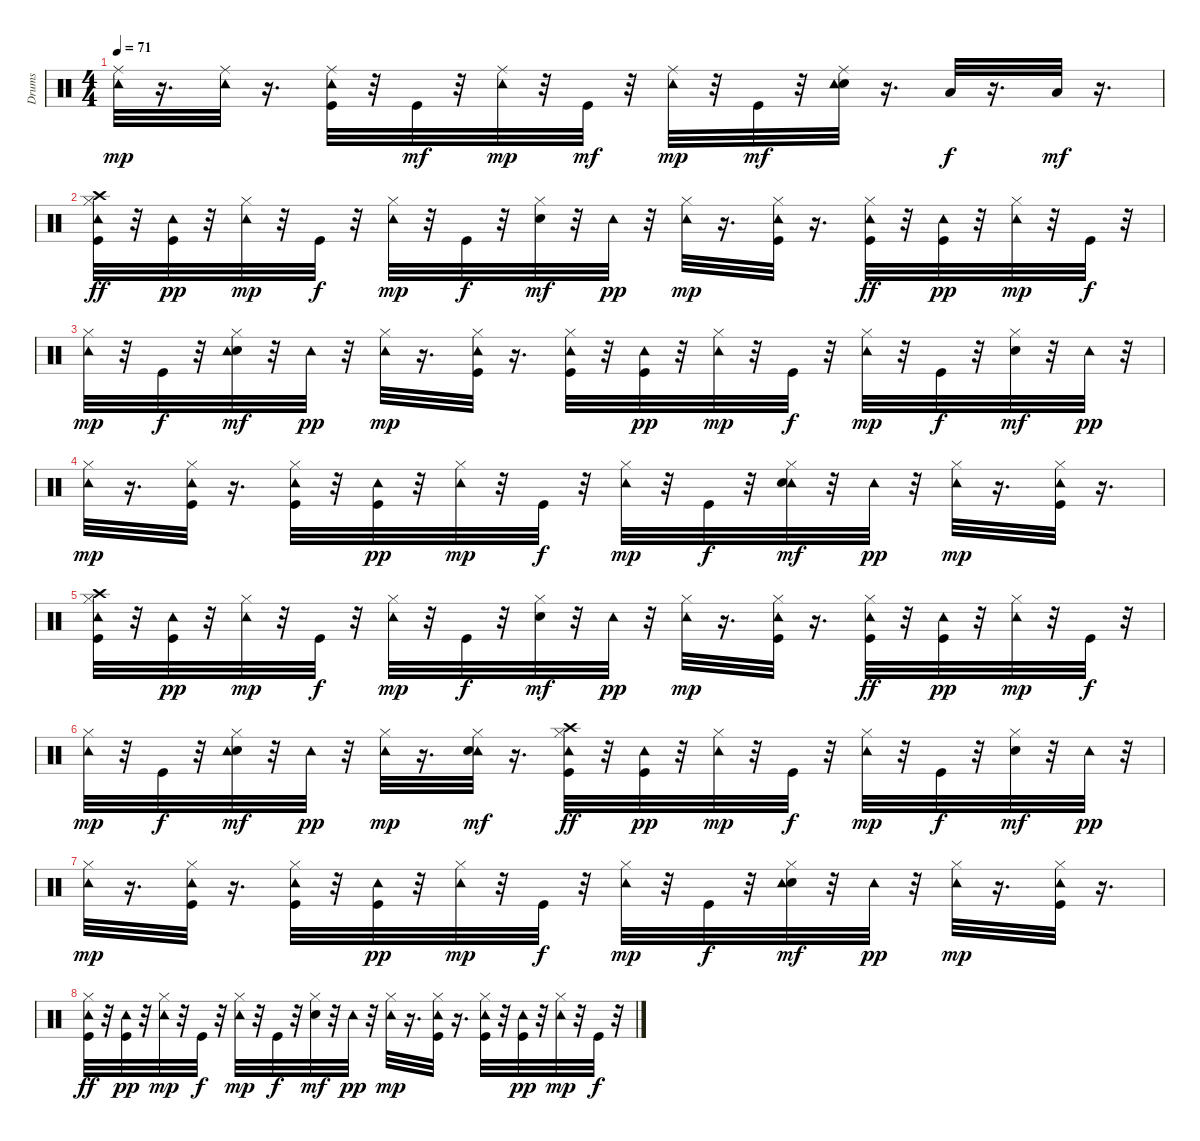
\track ("Drums" "Drums") {instrument percussion}
\staff {score}
\articulation defaults
\ts (4 4)
\tempo 71
\clef neutral
\ks c
("Tambourine (hit)" "Ride (middle)").32{dy mp} r.16{d} ("Tambourine (hit)" "Ride (middle)").32 r.16{d} ("Kick (hit)" "Tambourine (hit)" "Ride (middle)").32 r.32 "Kick (hit)".32{dy mf} r.32 ("Tambourine (hit)" "Ride (middle)").32{dy mp} r.32 "Kick (hit)".32{dy mf} r.32 ("Tambourine (hit)" "Ride (middle)").32{dy mp} r.32 "Kick (hit)".32{dy mf} r.32 ("Snare (hit) 2" "Tambourine (hit)" "Ride (middle)").32 r.16{d} "Low Tom (hit)".32{dy f} r.16{d} "Low Tom (hit)".32{dy mf} r.16{d} |
("Hi-Hat (closed)" "Crash high (hit)" "Tambourine (hit)" "Kick (hit)").32{dy ff} r.32 ("Tambourine (hit)" "Kick (hit)").32{dy pp} r.32 ("Tambourine (hit)" "Hi-Hat (closed)").32{dy mp} r.32 "Kick (hit)".32{dy f} r.32 ("Hi-Hat (closed)" "Tambourine (hit)").32{dy mp} r.32 "Kick (hit)".32{dy f} r.32 ("Hi-Hat (closed)" "Snare (hit) 2").32{dy mf} r.32 "Tambourine (hit)".32{dy pp} r.32 ("Tambourine (hit)" "Hi-Hat (closed)").32{dy mp} r.16{d} ("Hi-Hat (closed)" "Kick (hit)" "Tambourine (hit)").32 r.16{d} ("Tambourine (hit)" "Hi-Hat (closed)" "Kick (hit)").32{dy ff} r.32 ("Kick (hit)" "Tambourine (hit)").32{dy pp} r.32 ("Hi-Hat (closed)" "Tambourine (hit)").32{dy mp} r.32 "Kick (hit)".32{dy f} r.32 |
("Hi-Hat (closed)" "Tambourine (hit)").32{dy mp} r.32 "Kick (hit)".32{dy f} r.32 ("Hi-Hat (closed)" "Snare (hit) 2" "Tambourine (hit)").32{dy mf} r.32 "Tambourine (hit)".32{dy pp} r.32 ("Tambourine (hit)" "Hi-Hat (closed)").32{dy mp} r.16{d} ("Tambourine (hit)" "Kick (hit)" "Hi-Hat (closed)").32 r.16{d} ("Tambourine (hit)" "Kick (hit)" "Hi-Hat (closed)").32 r.32 ("Kick (hit)" "Tambourine (hit)").32{dy pp} r.32 ("Tambourine (hit)" "Hi-Hat (closed)").32{dy mp} r.32 "Kick (hit)".32{dy f} r.32 ("Tambourine (hit)" "Hi-Hat (closed)").32{dy mp} r.32 "Kick (hit)".32{dy f} r.32 ("Hi-Hat (closed)" "Snare (hit) 2").32{dy mf} r.32 "Tambourine (hit)".32{dy pp} r.32 |
("Hi-Hat (closed)" "Tambourine (hit)").32{dy mp} r.16{d} ("Tambourine (hit)" "Kick (hit)" "Hi-Hat (closed)").32 r.16{d} ("Kick (hit)" "Tambourine (hit)" "Hi-Hat (closed)").32 r.32 ("Kick (hit)" "Tambourine (hit)").32{dy pp} r.32 ("Hi-Hat (closed)" "Tambourine (hit)").32{dy mp} r.32 "Kick (hit)".32{dy f} r.32 ("Tambourine (hit)" "Hi-Hat (closed)").32{dy mp} r.32 "Kick (hit)".32{dy f} r.32 ("Hi-Hat (closed)" "Tambourine (hit)" "Snare (hit) 2").32{dy mf} r.32 "Tambourine (hit)".32{dy pp} r.32 ("Hi-Hat (closed)" "Tambourine (hit)").32{dy mp} r.16{d} ("Hi-Hat (closed)" "Kick (hit)" "Tambourine (hit)").32 r.16{d} |
("Hi-Hat (closed)" "Kick (hit)" "Tambourine (hit)" "Crash high (hit)").32 r.32 ("Kick (hit)" "Tambourine (hit)").32{dy pp} r.32 ("Tambourine (hit)" "Hi-Hat (closed)").32{dy mp} r.32 "Kick (hit)".32{dy f} r.32 ("Hi-Hat (closed)" "Tambourine (hit)").32{dy mp} r.32 "Kick (hit)".32{dy f} r.32 ("Hi-Hat (closed)" "Snare (hit) 2").32{dy mf} r.32 "Tambourine (hit)".32{dy pp} r.32 ("Hi-Hat (closed)" "Tambourine (hit)").32{dy mp} r.16{d} ("Tambourine (hit)" "Kick (hit)" "Hi-Hat (closed)").32 r.16{d} ("Hi-Hat (closed)" "Tambourine (hit)" "Kick (hit)").32{dy ff} r.32 ("Tambourine (hit)" "Kick (hit)").32{dy pp} r.32 ("Tambourine (hit)" "Hi-Hat (closed)").32{dy mp} r.32 "Kick (hit)".32{dy f} r.32 |
("Tambourine (hit)" "Hi-Hat (closed)").32{dy mp} r.32 "Kick (hit)".32{dy f} r.32 ("Snare (hit) 2" "Tambourine (hit)" "Hi-Hat (closed)").32{dy mf} r.32 "Tambourine (hit)".32{dy pp} r.32 ("Hi-Hat (closed)" "Tambourine (hit)").32{dy mp} r.16{d} ("Tambourine (hit)" "Hi-Hat (closed)" "Snare (hit) 2").32{dy mf} r.16{d} ("Crash high (hit)" "Tambourine (hit)" "Hi-Hat (closed)" "Kick (hit)").32{dy ff} r.32 ("Tambourine (hit)" "Kick (hit)").32{dy pp} r.32 ("Hi-Hat (closed)" "Tambourine (hit)").32{dy mp} r.32 "Kick (hit)".32{dy f} r.32 ("Tambourine (hit)" "Hi-Hat (closed)").32{dy mp} r.32 "Kick (hit)".32{dy f} r.32 ("Snare (hit) 2" "Hi-Hat (closed)").32{dy mf} r.32 "Tambourine (hit)".32{dy pp} r.32 |
("Hi-Hat (closed)" "Tambourine (hit)").32{dy mp} r.16{d} ("Tambourine (hit)" "Hi-Hat (closed)" "Kick (hit)").32 r.16{d} ("Tambourine (hit)" "Kick (hit)" "Hi-Hat (closed)").32 r.32 ("Kick (hit)" "Tambourine (hit)").32{dy pp} r.32 ("Hi-Hat (closed)" "Tambourine (hit)").32{dy mp} r.32 "Kick (hit)".32{dy f} r.32 ("Tambourine (hit)" "Hi-Hat (closed)").32{dy mp} r.32 "Kick (hit)".32{dy f} r.32 ("Hi-Hat (closed)" "Snare (hit) 2" "Tambourine (hit)").32{dy mf} r.32 "Tambourine (hit)".32{dy pp} r.32 ("Tambourine (hit)" "Hi-Hat (closed)").32{dy mp} r.16{d} ("Tambourine (hit)" "Hi-Hat (closed)" "Kick (hit)").32 r.16{d} |
("Tambourine (hit)" "Hi-Hat (closed)" "Kick (hit)").32{dy ff} r.32 ("Tambourine (hit)" "Kick (hit)").32{dy pp} r.32 ("Hi-Hat (closed)" "Tambourine (hit)").32{dy mp} r.32 "Kick (hit)".32{dy f} r.32 ("Hi-Hat (closed)" "Tambourine (hit)").32{dy mp} r.32 "Kick (hit)".32{dy f} r.32 ("Hi-Hat (closed)" "Snare (hit) 2").32{dy mf} r.32 "Tambourine (hit)".32{dy pp} r.32 ("Tambourine (hit)" "Hi-Hat (closed)").32{dy mp} r.16{d} ("Kick (hit)" "Tambourine (hit)" "Hi-Hat (closed)").32 r.16{d} ("Kick (hit)" "Hi-Hat (closed)" "Tambourine (hit)").32 r.32 ("Kick (hit)" "Tambourine (hit)").32{dy pp} r.32 ("Tambourine (hit)" "Hi-Hat (closed)").32{dy mp} r.32 "Kick (hit)".32{dy f} r.32
